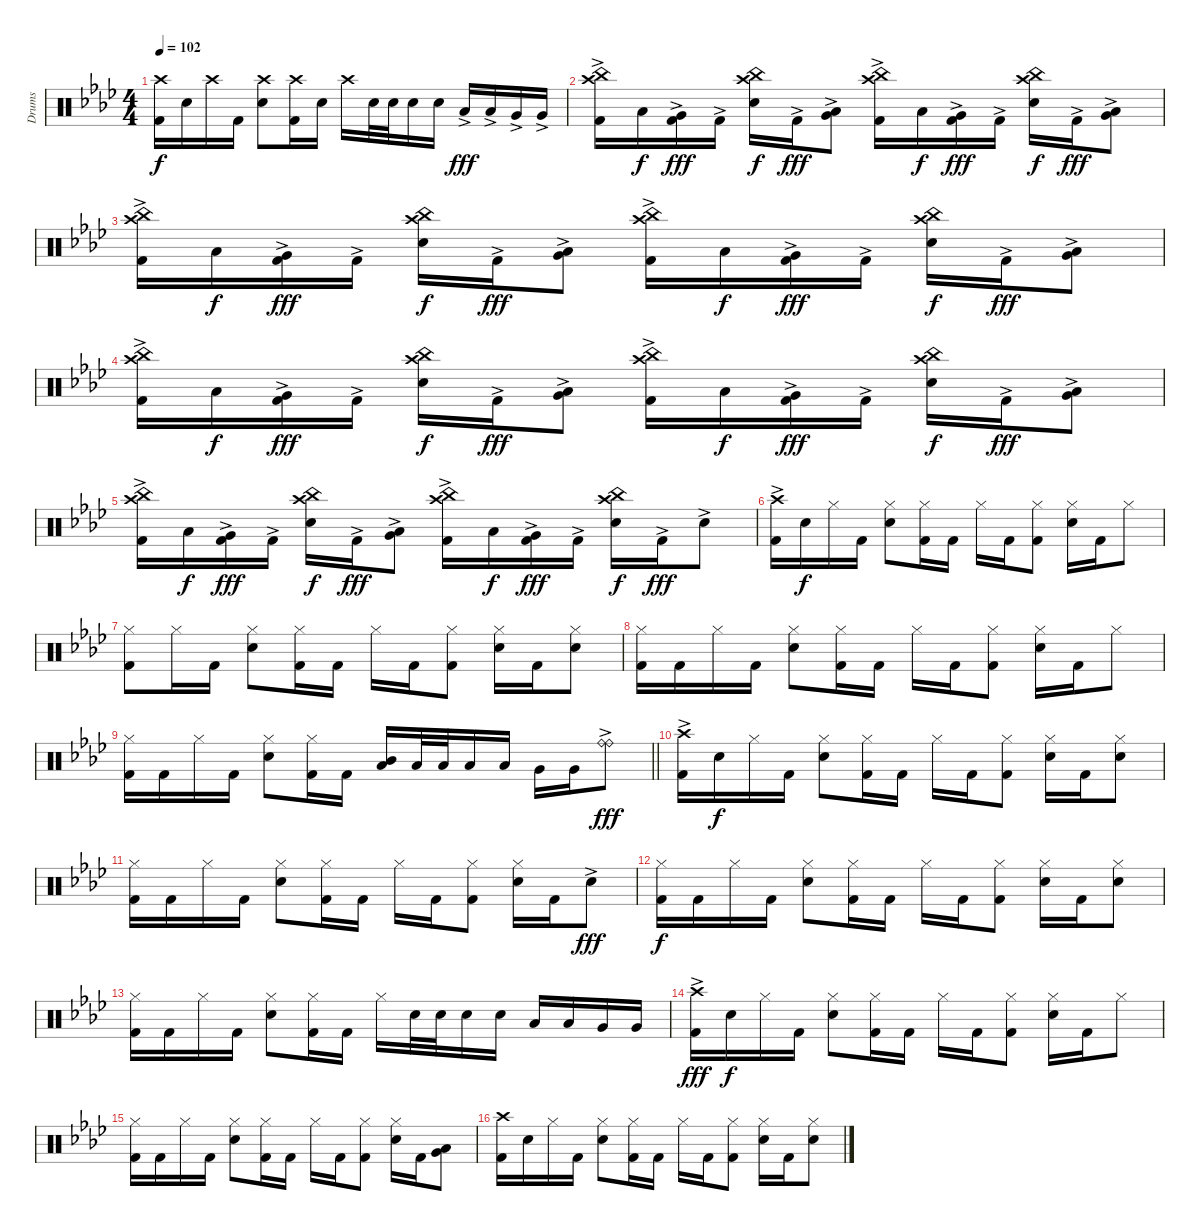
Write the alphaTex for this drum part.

\track ("Drums" "Drums") {instrument percussion}
\staff {score}
\articulation defaults
\ts (4 4)
\tempo 102
\clef neutral
\ks fminor
("Crash high (hit)" "Kick (hit) 2").16{dy f} "Snare (hit) 2".16 "Crash high (hit)".16 "Kick (hit) 2".16 ("Crash high (hit)" "Snare (hit) 2").8 ("Crash high (hit)" "Kick (hit) 2").16 "Snare (hit) 2".16 "Crash high (hit)".16 "Snare (hit) 2".32 "Snare (hit) 2".32 "Snare (hit) 2".16 "Snare (hit) 2".16 "Low Tom (hit)"{ac}.16{dy fff} "Low Tom (hit)"{ac}.16 "Very Low Tom (hit)"{ac}.16 "Very Low Tom (hit)"{ac}.16 |
("Crash high (hit)" "China (hit)" "Kick (hit) 2"{ac}).16 "Low Tom (hit)".16{dy f} ("Very Low Tom (hit)" "Kick (hit) 2"{ac}).16{dy fff} "Kick (hit) 2"{ac}.16 ("Crash high (hit)" "China (hit)" "Snare (hit) 2").16{dy f} "Kick (hit) 2"{ac}.16{dy fff} ("Low Tom (hit)" "Very Low Tom (hit)"{ac}).8 ("Crash high (hit)" "China (hit)" "Kick (hit) 2"{ac}).16 "Low Tom (hit)".16{dy f} ("Very Low Tom (hit)" "Kick (hit) 2"{ac}).16{dy fff} "Kick (hit) 2"{ac}.16 ("Crash high (hit)" "China (hit)" "Snare (hit) 2").16{dy f} "Kick (hit) 2"{ac}.16{dy fff} ("Low Tom (hit)" "Very Low Tom (hit)"{ac}).8 |
("Crash high (hit)" "China (hit)" "Kick (hit) 2"{ac}).16 "Low Tom (hit)".16{dy f} ("Very Low Tom (hit)" "Kick (hit) 2"{ac}).16{dy fff} "Kick (hit) 2"{ac}.16 ("Crash high (hit)" "China (hit)" "Snare (hit) 2").16{dy f} "Kick (hit) 2"{ac}.16{dy fff} ("Low Tom (hit)" "Very Low Tom (hit)"{ac}).8 ("Crash high (hit)" "China (hit)" "Kick (hit) 2"{ac}).16 "Low Tom (hit)".16{dy f} ("Very Low Tom (hit)" "Kick (hit) 2"{ac}).16{dy fff} "Kick (hit) 2"{ac}.16 ("Crash high (hit)" "China (hit)" "Snare (hit) 2").16{dy f} "Kick (hit) 2"{ac}.16{dy fff} ("Low Tom (hit)" "Very Low Tom (hit)"{ac}).8 |
("Crash high (hit)" "China (hit)" "Kick (hit) 2"{ac}).16 "Low Tom (hit)".16{dy f} ("Very Low Tom (hit)" "Kick (hit) 2"{ac}).16{dy fff} "Kick (hit) 2"{ac}.16 ("Crash high (hit)" "China (hit)" "Snare (hit) 2").16{dy f} "Kick (hit) 2"{ac}.16{dy fff} ("Low Tom (hit)" "Very Low Tom (hit)"{ac}).8 ("Crash high (hit)" "China (hit)" "Kick (hit) 2"{ac}).16 "Low Tom (hit)".16{dy f} ("Very Low Tom (hit)" "Kick (hit) 2"{ac}).16{dy fff} "Kick (hit) 2"{ac}.16 ("Crash high (hit)" "China (hit)" "Snare (hit) 2").16{dy f} "Kick (hit) 2"{ac}.16{dy fff} ("Low Tom (hit)" "Very Low Tom (hit)"{ac}).8 |
("Crash high (hit)" "China (hit)" "Kick (hit) 2"{ac}).16 "Low Tom (hit)".16{dy f} ("Very Low Tom (hit)" "Kick (hit) 2"{ac}).16{dy fff} "Kick (hit) 2"{ac}.16 ("Crash high (hit)" "China (hit)" "Snare (hit) 2").16{dy f} "Kick (hit) 2"{ac}.16{dy fff} ("Low Tom (hit)" "Very Low Tom (hit)"{ac}).8 ("Crash high (hit)" "China (hit)" "Kick (hit) 2"{ac}).16 "Low Tom (hit)".16{dy f} ("Very Low Tom (hit)" "Kick (hit) 2"{ac}).16{dy fff} "Kick (hit) 2"{ac}.16 ("Crash high (hit)" "China (hit)" "Snare (hit) 2").16{dy f} "Kick (hit) 2"{ac}.16{dy fff} "Snare (hit) 2"{ac}.8 |
("Crash high (hit)" "Kick (hit) 2"{ac}).16 "Snare (hit) 2".16{dy f} "Hi-Hat (closed)".16 "Kick (hit) 2".16 ("Hi-Hat (closed)" "Snare (hit) 2").8 ("Hi-Hat (closed)" "Kick (hit) 2").16 "Kick (hit) 2".16 "Hi-Hat (closed)".16 "Kick (hit) 2".16 ("Hi-Hat (closed)" "Kick (hit) 2").8 ("Hi-Hat (closed)" "Snare (hit) 2").16 "Kick (hit) 2".16 "Hi-Hat (closed)".8 |
("Hi-Hat (closed)" "Kick (hit) 2").8 "Hi-Hat (closed)".16 "Kick (hit) 2".16 ("Hi-Hat (closed)" "Snare (hit) 2").8 ("Hi-Hat (closed)" "Kick (hit) 2").16 "Kick (hit) 2".16 "Hi-Hat (closed)".16 "Kick (hit) 2".16 ("Hi-Hat (closed)" "Kick (hit) 2").8 ("Hi-Hat (closed)" "Snare (hit) 2").16 "Kick (hit) 2".16 ("Hi-Hat (closed)" "Snare (hit) 2").8 |
("Hi-Hat (closed)" "Kick (hit) 2").16 "Kick (hit) 2".16 "Hi-Hat (closed)".16 "Kick (hit) 2".16 ("Hi-Hat (closed)" "Snare (hit) 2").8 ("Hi-Hat (closed)" "Kick (hit) 2").16 "Kick (hit) 2".16 "Hi-Hat (closed)".16 "Kick (hit) 2".16 ("Hi-Hat (closed)" "Kick (hit) 2").8 ("Hi-Hat (closed)" "Snare (hit) 2").16 "Kick (hit) 2".16 "Hi-Hat (closed)".8 |
\barLineRight lightlight
("Hi-Hat (closed)" "Kick (hit) 2").16 "Kick (hit) 2".16 "Hi-Hat (closed)".16 "Kick (hit) 2".16 ("Hi-Hat (closed)" "Snare (hit) 2").8 ("Hi-Hat (closed)" "Kick (hit) 2").16 "Kick (hit) 2".16 ("Mid Tom (hit)" "Low Tom (hit)").16 "Low Tom (hit)".32 "Low Tom (hit)".32 "Low Tom (hit)".16 "Low Tom (hit)".16 "Very Low Tom (hit)".16 "Very Low Tom (hit)".16 ("Ride (bell)"{ac} "Ride (bell)"{ac}).8{dy fff} |
("Crash high (hit)" "Kick (hit) 2"{ac}).16 "Snare (hit) 2".16{dy f} "Hi-Hat (closed)".16 "Kick (hit) 2".16 ("Hi-Hat (closed)" "Snare (hit) 2").8 ("Hi-Hat (closed)" "Kick (hit) 2").16 "Kick (hit) 2".16 "Hi-Hat (closed)".16 "Kick (hit) 2".16 ("Hi-Hat (closed)" "Kick (hit) 2").8 ("Hi-Hat (closed)" "Snare (hit) 2").16 "Kick (hit) 2".16 ("Hi-Hat (closed)" "Snare (hit) 2").8 |
("Hi-Hat (closed)" "Kick (hit) 2").16 "Kick (hit) 2".16 "Hi-Hat (closed)".16 "Kick (hit) 2".16 ("Hi-Hat (closed)" "Snare (hit) 2").8 ("Hi-Hat (closed)" "Kick (hit) 2").16 "Kick (hit) 2".16 "Hi-Hat (closed)".16 "Kick (hit) 2".16 ("Hi-Hat (closed)" "Kick (hit) 2").8 ("Hi-Hat (closed)" "Snare (hit) 2").16 "Kick (hit) 2".16 "Snare (hit) 2"{ac}.8{dy fff} |
("Hi-Hat (closed)" "Kick (hit) 2").16{dy f} "Kick (hit) 2".16 "Hi-Hat (closed)".16 "Kick (hit) 2".16 ("Hi-Hat (closed)" "Snare (hit) 2").8 ("Hi-Hat (closed)" "Kick (hit) 2").16 "Kick (hit) 2".16 "Hi-Hat (closed)".16 "Kick (hit) 2".16 ("Hi-Hat (closed)" "Kick (hit) 2").8 ("Hi-Hat (closed)" "Snare (hit) 2").16 "Kick (hit) 2".16 ("Hi-Hat (closed)" "Snare (hit) 2").8 |
("Hi-Hat (closed)" "Kick (hit) 2").16 "Kick (hit) 2".16 "Hi-Hat (closed)".16 "Kick (hit) 2".16 ("Hi-Hat (closed)" "Snare (hit) 2").8 ("Hi-Hat (closed)" "Kick (hit) 2").16 "Kick (hit) 2".16 "Hi-Hat (closed)".16 "Snare (hit) 2".32 "Snare (hit) 2".32 "Snare (hit) 2".16 "Snare (hit) 2".16 "Low Tom (hit)".16 "Low Tom (hit)".16 "Very Low Tom (hit)".16 "Very Low Tom (hit)".16 |
("Crash high (hit)" "Kick (hit) 2"{ac}).16{dy fff} "Snare (hit) 2".16{dy f} "Hi-Hat (closed)".16 "Kick (hit) 2".16 ("Hi-Hat (closed)" "Snare (hit) 2").8 ("Hi-Hat (closed)" "Kick (hit) 2").16 "Kick (hit) 2".16 "Hi-Hat (closed)".16 "Kick (hit) 2".16 ("Hi-Hat (closed)" "Kick (hit) 2").8 ("Hi-Hat (closed)" "Snare (hit) 2").16 "Kick (hit) 2".16 "Hi-Hat (closed)".8 |
("Hi-Hat (closed)" "Kick (hit) 2").16 "Kick (hit) 2".16 "Hi-Hat (closed)".16 "Kick (hit) 2".16 ("Hi-Hat (closed)" "Snare (hit) 2").8 ("Hi-Hat (closed)" "Kick (hit) 2").16 "Kick (hit) 2".16 "Hi-Hat (closed)".16 "Kick (hit) 2".16 ("Hi-Hat (closed)" "Kick (hit) 2").8 ("Hi-Hat (closed)" "Snare (hit) 2").16 "Kick (hit) 2".16 ("Low Tom (hit)" "Very Low Tom (hit)").8 |
("Crash high (hit)" "Kick (hit) 2").16 "Snare (hit) 2".16 "Hi-Hat (closed)".16 "Kick (hit) 2".16 ("Hi-Hat (closed)" "Snare (hit) 2").8 ("Hi-Hat (closed)" "Kick (hit) 2").16 "Kick (hit) 2".16 "Hi-Hat (closed)".16 "Kick (hit) 2".16 ("Hi-Hat (closed)" "Kick (hit) 2").8 ("Hi-Hat (closed)" "Snare (hit) 2").16 "Kick (hit) 2".16 ("Hi-Hat (closed)" "Snare (hit) 2").8
